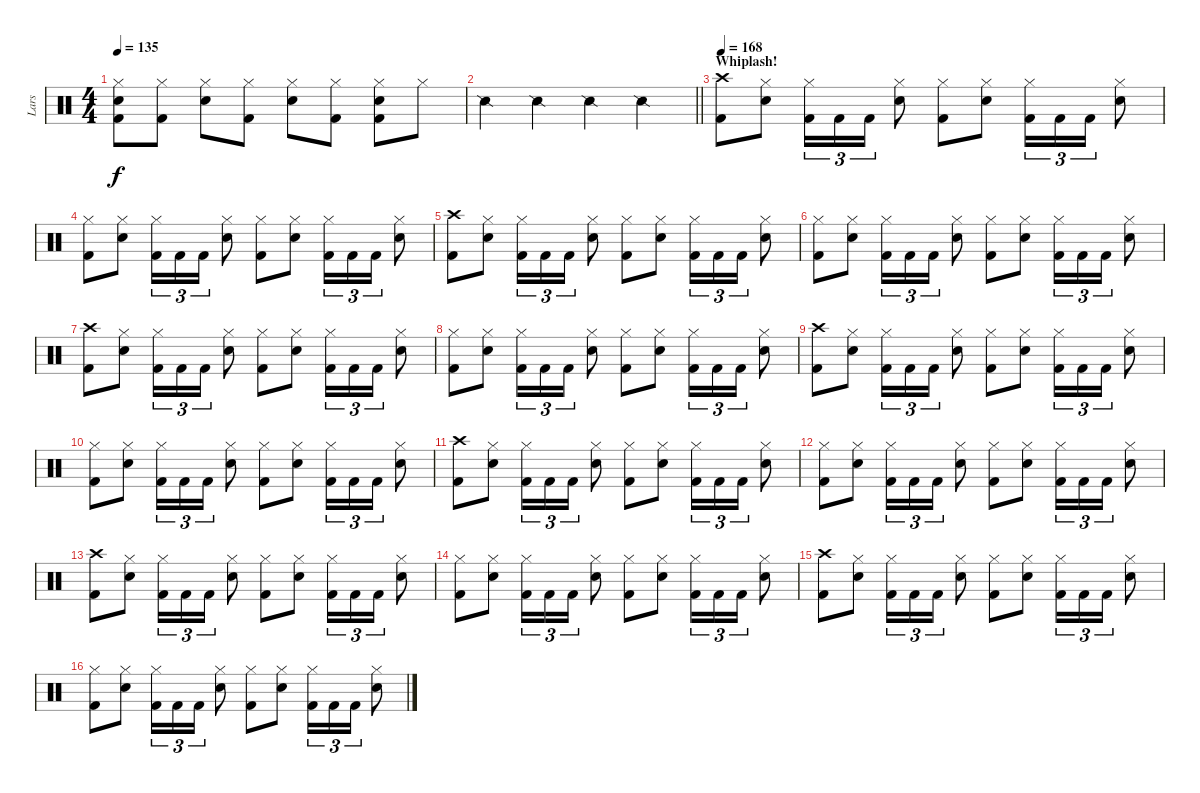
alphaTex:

\track ("Lars" "Lars") {instrument percussion}
\staff {score}
\articulation defaults
\ts (4 4)
\tempo 135
\clef neutral
\ks c
("Hi-Hat (closed)" "Snare (hit) 2" "Kick (hit) 2").8{dy f} ("Hi-Hat (closed)" "Kick (hit) 2").8 ("Hi-Hat (closed)" "Snare (hit) 2").8 ("Hi-Hat (closed)" "Kick (hit) 2").8 ("Hi-Hat (closed)" "Snare (hit) 2").8 ("Hi-Hat (closed)" "Kick (hit) 2").8 ("Hi-Hat (closed)" "Snare (hit) 2" "Kick (hit) 2").8 "Hi-Hat (closed)".8 |
\barLineRight lightlight "Snare (side stick) 2".4 "Snare (side stick) 2".4 "Snare (side stick) 2".4 "Snare (side stick) 2".4
|
\section ("" "Whiplash!")
\tempo 168
("Crash high (hit)" "Kick (hit) 2").8 ("Hi-Hat (closed)" "Snare (hit) 2").8 ("Hi-Hat (closed)" "Kick (hit) 2").16{tu (3 2)} "Kick (hit) 2".16{tu (3 2)} "Kick (hit) 2".16{tu (3 2)} ("Hi-Hat (closed)" "Snare (hit) 2").8 ("Hi-Hat (closed)" "Kick (hit) 2").8 ("Hi-Hat (closed)" "Snare (hit) 2").8 ("Hi-Hat (closed)" "Kick (hit) 2").16{tu (3 2)} "Kick (hit) 2".16{tu (3 2)} "Kick (hit) 2".16{tu (3 2)} ("Hi-Hat (closed)" "Snare (hit) 2").8 |
("Hi-Hat (closed)" "Kick (hit) 2").8 ("Hi-Hat (closed)" "Snare (hit) 2").8 ("Hi-Hat (closed)" "Kick (hit) 2").16{tu (3 2)} "Kick (hit) 2".16{tu (3 2)} "Kick (hit) 2".16{tu (3 2)} ("Hi-Hat (closed)" "Snare (hit) 2").8 ("Hi-Hat (closed)" "Kick (hit) 2").8 ("Hi-Hat (closed)" "Snare (hit) 2").8 ("Hi-Hat (closed)" "Kick (hit) 2").16{tu (3 2)} "Kick (hit) 2".16{tu (3 2)} "Kick (hit) 2".16{tu (3 2)} ("Hi-Hat (closed)" "Snare (hit) 2").8 |
("Crash high (hit)" "Kick (hit) 2").8 ("Hi-Hat (closed)" "Snare (hit) 2").8 ("Hi-Hat (closed)" "Kick (hit) 2").16{tu (3 2)} "Kick (hit) 2".16{tu (3 2)} "Kick (hit) 2".16{tu (3 2)} ("Hi-Hat (closed)" "Snare (hit) 2").8 ("Hi-Hat (closed)" "Kick (hit) 2").8 ("Hi-Hat (closed)" "Snare (hit) 2").8 ("Hi-Hat (closed)" "Kick (hit) 2").16{tu (3 2)} "Kick (hit) 2".16{tu (3 2)} "Kick (hit) 2".16{tu (3 2)} ("Hi-Hat (closed)" "Snare (hit) 2").8 |
("Hi-Hat (closed)" "Kick (hit) 2").8 ("Hi-Hat (closed)" "Snare (hit) 2").8 ("Hi-Hat (closed)" "Kick (hit) 2").16{tu (3 2)} "Kick (hit) 2".16{tu (3 2)} "Kick (hit) 2".16{tu (3 2)} ("Hi-Hat (closed)" "Snare (hit) 2").8 ("Hi-Hat (closed)" "Kick (hit) 2").8 ("Hi-Hat (closed)" "Snare (hit) 2").8 ("Hi-Hat (closed)" "Kick (hit) 2").16{tu (3 2)} "Kick (hit) 2".16{tu (3 2)} "Kick (hit) 2".16{tu (3 2)} ("Hi-Hat (closed)" "Snare (hit) 2").8 |
("Crash high (hit)" "Kick (hit) 2").8 ("Hi-Hat (closed)" "Snare (hit) 2").8 ("Hi-Hat (closed)" "Kick (hit) 2").16{tu (3 2)} "Kick (hit) 2".16{tu (3 2)} "Kick (hit) 2".16{tu (3 2)} ("Hi-Hat (closed)" "Snare (hit) 2").8 ("Hi-Hat (closed)" "Kick (hit) 2").8 ("Hi-Hat (closed)" "Snare (hit) 2").8 ("Hi-Hat (closed)" "Kick (hit) 2").16{tu (3 2)} "Kick (hit) 2".16{tu (3 2)} "Kick (hit) 2".16{tu (3 2)} ("Hi-Hat (closed)" "Snare (hit) 2").8 |
("Hi-Hat (closed)" "Kick (hit) 2").8 ("Hi-Hat (closed)" "Snare (hit) 2").8 ("Hi-Hat (closed)" "Kick (hit) 2").16{tu (3 2)} "Kick (hit) 2".16{tu (3 2)} "Kick (hit) 2".16{tu (3 2)} ("Hi-Hat (closed)" "Snare (hit) 2").8 ("Hi-Hat (closed)" "Kick (hit) 2").8 ("Hi-Hat (closed)" "Snare (hit) 2").8 ("Hi-Hat (closed)" "Kick (hit) 2").16{tu (3 2)} "Kick (hit) 2".16{tu (3 2)} "Kick (hit) 2".16{tu (3 2)} ("Hi-Hat (closed)" "Snare (hit) 2").8 |
("Crash high (hit)" "Kick (hit) 2").8 ("Hi-Hat (closed)" "Snare (hit) 2").8 ("Hi-Hat (closed)" "Kick (hit) 2").16{tu (3 2)} "Kick (hit) 2".16{tu (3 2)} "Kick (hit) 2".16{tu (3 2)} ("Hi-Hat (closed)" "Snare (hit) 2").8 ("Hi-Hat (closed)" "Kick (hit) 2").8 ("Hi-Hat (closed)" "Snare (hit) 2").8 ("Hi-Hat (closed)" "Kick (hit) 2").16{tu (3 2)} "Kick (hit) 2".16{tu (3 2)} "Kick (hit) 2".16{tu (3 2)} ("Hi-Hat (closed)" "Snare (hit) 2").8 |
("Hi-Hat (closed)" "Kick (hit) 2").8 ("Hi-Hat (closed)" "Snare (hit) 2").8 ("Hi-Hat (closed)" "Kick (hit) 2").16{tu (3 2)} "Kick (hit) 2".16{tu (3 2)} "Kick (hit) 2".16{tu (3 2)} ("Hi-Hat (closed)" "Snare (hit) 2").8 ("Hi-Hat (closed)" "Kick (hit) 2").8 ("Hi-Hat (closed)" "Snare (hit) 2").8 ("Hi-Hat (closed)" "Kick (hit) 2").16{tu (3 2)} "Kick (hit) 2".16{tu (3 2)} "Kick (hit) 2".16{tu (3 2)} ("Hi-Hat (closed)" "Snare (hit) 2").8 |
("Crash high (hit)" "Kick (hit) 2").8 ("Hi-Hat (closed)" "Snare (hit) 2").8 ("Hi-Hat (closed)" "Kick (hit) 2").16{tu (3 2)} "Kick (hit) 2".16{tu (3 2)} "Kick (hit) 2".16{tu (3 2)} ("Hi-Hat (closed)" "Snare (hit) 2").8 ("Hi-Hat (closed)" "Kick (hit) 2").8 ("Hi-Hat (closed)" "Snare (hit) 2").8 ("Hi-Hat (closed)" "Kick (hit) 2").16{tu (3 2)} "Kick (hit) 2".16{tu (3 2)} "Kick (hit) 2".16{tu (3 2)} ("Hi-Hat (closed)" "Snare (hit) 2").8 |
("Hi-Hat (closed)" "Kick (hit) 2").8 ("Hi-Hat (closed)" "Snare (hit) 2").8 ("Hi-Hat (closed)" "Kick (hit) 2").16{tu (3 2)} "Kick (hit) 2".16{tu (3 2)} "Kick (hit) 2".16{tu (3 2)} ("Hi-Hat (closed)" "Snare (hit) 2").8 ("Hi-Hat (closed)" "Kick (hit) 2").8 ("Hi-Hat (closed)" "Snare (hit) 2").8 ("Hi-Hat (closed)" "Kick (hit) 2").16{tu (3 2)} "Kick (hit) 2".16{tu (3 2)} "Kick (hit) 2".16{tu (3 2)} ("Hi-Hat (closed)" "Snare (hit) 2").8 |
("Crash high (hit)" "Kick (hit) 2").8 ("Hi-Hat (closed)" "Snare (hit) 2").8 ("Hi-Hat (closed)" "Kick (hit) 2").16{tu (3 2)} "Kick (hit) 2".16{tu (3 2)} "Kick (hit) 2".16{tu (3 2)} ("Hi-Hat (closed)" "Snare (hit) 2").8 ("Hi-Hat (closed)" "Kick (hit) 2").8 ("Hi-Hat (closed)" "Snare (hit) 2").8 ("Hi-Hat (closed)" "Kick (hit) 2").16{tu (3 2)} "Kick (hit) 2".16{tu (3 2)} "Kick (hit) 2".16{tu (3 2)} ("Hi-Hat (closed)" "Snare (hit) 2").8 |
("Hi-Hat (closed)" "Kick (hit) 2").8 ("Hi-Hat (closed)" "Snare (hit) 2").8 ("Hi-Hat (closed)" "Kick (hit) 2").16{tu (3 2)} "Kick (hit) 2".16{tu (3 2)} "Kick (hit) 2".16{tu (3 2)} ("Hi-Hat (closed)" "Snare (hit) 2").8 ("Hi-Hat (closed)" "Kick (hit) 2").8 ("Hi-Hat (closed)" "Snare (hit) 2").8 ("Hi-Hat (closed)" "Kick (hit) 2").16{tu (3 2)} "Kick (hit) 2".16{tu (3 2)} "Kick (hit) 2".16{tu (3 2)} ("Hi-Hat (closed)" "Snare (hit) 2").8 |
("Crash high (hit)" "Kick (hit) 2").8 ("Hi-Hat (closed)" "Snare (hit) 2").8 ("Hi-Hat (closed)" "Kick (hit) 2").16{tu (3 2)} "Kick (hit) 2".16{tu (3 2)} "Kick (hit) 2".16{tu (3 2)} ("Hi-Hat (closed)" "Snare (hit) 2").8 ("Hi-Hat (closed)" "Kick (hit) 2").8 ("Hi-Hat (closed)" "Snare (hit) 2").8 ("Hi-Hat (closed)" "Kick (hit) 2").16{tu (3 2)} "Kick (hit) 2".16{tu (3 2)} "Kick (hit) 2".16{tu (3 2)} ("Hi-Hat (closed)" "Snare (hit) 2").8 |
("Hi-Hat (closed)" "Kick (hit) 2").8 ("Hi-Hat (closed)" "Snare (hit) 2").8 ("Hi-Hat (closed)" "Kick (hit) 2").16{tu (3 2)} "Kick (hit) 2".16{tu (3 2)} "Kick (hit) 2".16{tu (3 2)} ("Hi-Hat (closed)" "Snare (hit) 2").8 ("Hi-Hat (closed)" "Kick (hit) 2").8 ("Hi-Hat (closed)" "Snare (hit) 2").8 ("Hi-Hat (closed)" "Kick (hit) 2").16{tu (3 2)} "Kick (hit) 2".16{tu (3 2)} "Kick (hit) 2".16{tu (3 2)} ("Hi-Hat (closed)" "Snare (hit) 2").8
